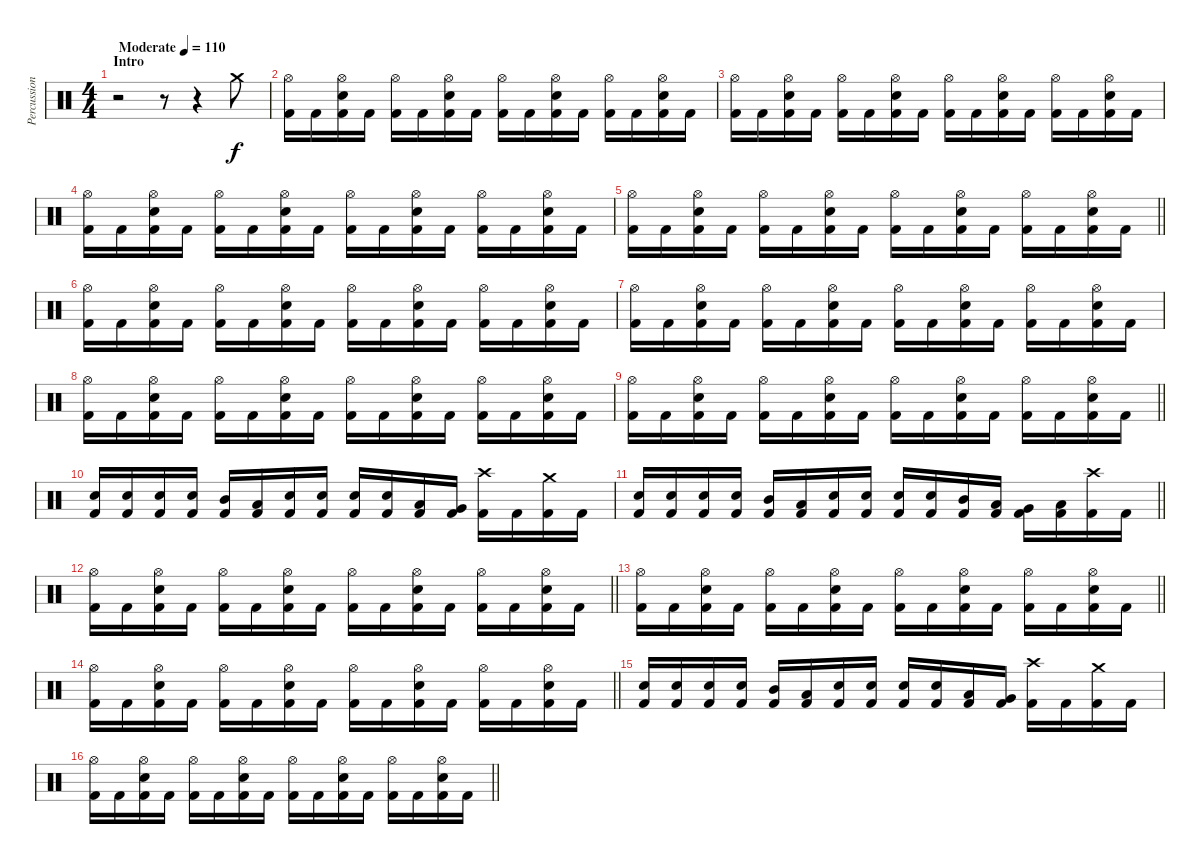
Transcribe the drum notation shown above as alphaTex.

\track ("Percussion" "Percussion") {instrument percussion}
\staff {score}
\articulation defaults
\ts (4 4)
\section ("" "Intro")
\tempo (110 "Moderate")
\clef neutral
\ks c
r.2{dy f} r.8 r.4 "Crash medium (hit)".8 |
("Hi-Hat (open)" "Kick (hit) 2").16 "Kick (hit) 2".16 ("Hi-Hat (open)" "Electric Snare (hit)" "Kick (hit) 2").16 "Kick (hit) 2".16 ("Hi-Hat (open)" "Kick (hit) 2").16 "Kick (hit) 2".16 ("Hi-Hat (open)" "Electric Snare (hit)" "Kick (hit) 2").16 "Kick (hit) 2".16 ("Hi-Hat (open)" "Kick (hit) 2").16 "Kick (hit) 2".16 ("Hi-Hat (open)" "Electric Snare (hit)" "Kick (hit) 2").16 "Kick (hit) 2".16 ("Hi-Hat (open)" "Kick (hit) 2").16 "Kick (hit) 2".16 ("Hi-Hat (open)" "Electric Snare (hit)" "Kick (hit) 2").16 "Kick (hit) 2".16 |
("Hi-Hat (open)" "Kick (hit) 2").16 "Kick (hit) 2".16 ("Hi-Hat (open)" "Electric Snare (hit)" "Kick (hit) 2").16 "Kick (hit) 2".16 ("Hi-Hat (open)" "Kick (hit) 2").16 "Kick (hit) 2".16 ("Hi-Hat (open)" "Electric Snare (hit)" "Kick (hit) 2").16 "Kick (hit) 2".16 ("Hi-Hat (open)" "Kick (hit) 2").16 "Kick (hit) 2".16 ("Hi-Hat (open)" "Electric Snare (hit)" "Kick (hit) 2").16 "Kick (hit) 2".16 ("Hi-Hat (open)" "Kick (hit) 2").16 "Kick (hit) 2".16 ("Hi-Hat (open)" "Electric Snare (hit)" "Kick (hit) 2").16 "Kick (hit) 2".16 |
("Hi-Hat (open)" "Kick (hit) 2").16 "Kick (hit) 2".16 ("Hi-Hat (open)" "Electric Snare (hit)" "Kick (hit) 2").16 "Kick (hit) 2".16 ("Hi-Hat (open)" "Kick (hit) 2").16 "Kick (hit) 2".16 ("Hi-Hat (open)" "Electric Snare (hit)" "Kick (hit) 2").16 "Kick (hit) 2".16 ("Hi-Hat (open)" "Kick (hit) 2").16 "Kick (hit) 2".16 ("Hi-Hat (open)" "Electric Snare (hit)" "Kick (hit) 2").16 "Kick (hit) 2".16 ("Hi-Hat (open)" "Kick (hit) 2").16 "Kick (hit) 2".16 ("Hi-Hat (open)" "Electric Snare (hit)" "Kick (hit) 2").16 "Kick (hit) 2".16 |
\barLineRight lightlight
("Hi-Hat (open)" "Kick (hit) 2").16 "Kick (hit) 2".16 ("Hi-Hat (open)" "Electric Snare (hit)" "Kick (hit) 2").16 "Kick (hit) 2".16 ("Hi-Hat (open)" "Kick (hit) 2").16 "Kick (hit) 2".16 ("Hi-Hat (open)" "Electric Snare (hit)" "Kick (hit) 2").16 "Kick (hit) 2".16 ("Hi-Hat (open)" "Kick (hit) 2").16 "Kick (hit) 2".16 ("Hi-Hat (open)" "Electric Snare (hit)" "Kick (hit) 2").16 "Kick (hit) 2".16 ("Hi-Hat (open)" "Kick (hit) 2").16 "Kick (hit) 2".16 ("Hi-Hat (open)" "Electric Snare (hit)" "Kick (hit) 2").16 "Kick (hit) 2".16 |
\section ("" "")
("Hi-Hat (open)" "Kick (hit) 2").16 "Kick (hit) 2".16 ("Hi-Hat (open)" "Electric Snare (hit)" "Kick (hit) 2").16 "Kick (hit) 2".16 ("Hi-Hat (open)" "Kick (hit) 2").16 "Kick (hit) 2".16 ("Hi-Hat (open)" "Electric Snare (hit)" "Kick (hit) 2").16 "Kick (hit) 2".16 ("Hi-Hat (open)" "Kick (hit) 2").16 "Kick (hit) 2".16 ("Hi-Hat (open)" "Electric Snare (hit)" "Kick (hit) 2").16 "Kick (hit) 2".16 ("Hi-Hat (open)" "Kick (hit) 2").16 "Kick (hit) 2".16 ("Hi-Hat (open)" "Electric Snare (hit)" "Kick (hit) 2").16 "Kick (hit) 2".16 |
("Hi-Hat (open)" "Kick (hit) 2").16 "Kick (hit) 2".16 ("Hi-Hat (open)" "Electric Snare (hit)" "Kick (hit) 2").16 "Kick (hit) 2".16 ("Hi-Hat (open)" "Kick (hit) 2").16 "Kick (hit) 2".16 ("Hi-Hat (open)" "Electric Snare (hit)" "Kick (hit) 2").16 "Kick (hit) 2".16 ("Hi-Hat (open)" "Kick (hit) 2").16 "Kick (hit) 2".16 ("Hi-Hat (open)" "Electric Snare (hit)" "Kick (hit) 2").16 "Kick (hit) 2".16 ("Hi-Hat (open)" "Kick (hit) 2").16 "Kick (hit) 2".16 ("Hi-Hat (open)" "Electric Snare (hit)" "Kick (hit) 2").16 "Kick (hit) 2".16 |
("Hi-Hat (open)" "Kick (hit) 2").16 "Kick (hit) 2".16 ("Hi-Hat (open)" "Electric Snare (hit)" "Kick (hit) 2").16 "Kick (hit) 2".16 ("Hi-Hat (open)" "Kick (hit) 2").16 "Kick (hit) 2".16 ("Hi-Hat (open)" "Electric Snare (hit)" "Kick (hit) 2").16 "Kick (hit) 2".16 ("Hi-Hat (open)" "Kick (hit) 2").16 "Kick (hit) 2".16 ("Hi-Hat (open)" "Electric Snare (hit)" "Kick (hit) 2").16 "Kick (hit) 2".16 ("Hi-Hat (open)" "Kick (hit) 2").16 "Kick (hit) 2".16 ("Hi-Hat (open)" "Electric Snare (hit)" "Kick (hit) 2").16 "Kick (hit) 2".16 |
\barLineRight lightlight
("Hi-Hat (open)" "Kick (hit) 2").16 "Kick (hit) 2".16 ("Hi-Hat (open)" "Electric Snare (hit)" "Kick (hit) 2").16 "Kick (hit) 2".16 ("Hi-Hat (open)" "Kick (hit) 2").16 "Kick (hit) 2".16 ("Hi-Hat (open)" "Electric Snare (hit)" "Kick (hit) 2").16 "Kick (hit) 2".16 ("Hi-Hat (open)" "Kick (hit) 2").16 "Kick (hit) 2".16 ("Hi-Hat (open)" "Electric Snare (hit)" "Kick (hit) 2").16 "Kick (hit) 2".16 ("Hi-Hat (open)" "Kick (hit) 2").16 "Kick (hit) 2".16 ("Hi-Hat (open)" "Electric Snare (hit)" "Kick (hit) 2").16 "Kick (hit) 2".16 |
\section ("" "")
("Electric Snare (hit)" "Kick (hit) 2").16 ("Electric Snare (hit)" "Kick (hit) 2").16 ("Electric Snare (hit)" "Kick (hit) 2").16 ("Electric Snare (hit)" "Kick (hit) 2").16 ("Mid Tom (hit)" "Kick (hit) 2").16 ("Low Tom (hit)" "Kick (hit) 2").16 ("Electric Snare (hit)" "Kick (hit) 2").16 ("Electric Snare (hit)" "Kick (hit) 2").16 ("Electric Snare (hit)" "Kick (hit) 2").16 ("Electric Snare (hit)" "Kick (hit) 2").16 ("Low Tom (hit)" "Kick (hit) 2").16 ("Very Low Tom (hit)" "Kick (hit) 2").16 ("Crash high (hit)" "Kick (hit) 2").16 "Kick (hit) 2".16 ("Crash medium (hit)" "Kick (hit) 2").16 "Kick (hit) 2".16 |
\barLineRight lightlight
("Electric Snare (hit)" "Kick (hit) 2").16 ("Electric Snare (hit)" "Kick (hit) 2").16 ("Electric Snare (hit)" "Kick (hit) 2").16 ("Electric Snare (hit)" "Kick (hit) 2").16 ("Mid Tom (hit)" "Kick (hit) 2").16 ("Low Tom (hit)" "Kick (hit) 2").16 ("Electric Snare (hit)" "Kick (hit) 2").16 ("Electric Snare (hit)" "Kick (hit) 2").16 ("Electric Snare (hit)" "Kick (hit) 2").16 ("Electric Snare (hit)" "Kick (hit) 2").16 ("Mid Tom (hit)" "Kick (hit) 2").16 ("Low Tom (hit)" "Kick (hit) 2").16 ("Very Low Tom (hit)" "Kick (hit) 2").16 ("Low Floor Tom (hit)" "Kick (hit) 2").16 ("Crash high (hit)" "Kick (hit) 2").16 "Kick (hit) 2".16 |
\section ("" "")
\barLineRight lightlight
("Hi-Hat (open)" "Kick (hit) 2").16 "Kick (hit) 2".16 ("Hi-Hat (open)" "Electric Snare (hit)" "Kick (hit) 2").16 "Kick (hit) 2".16 ("Hi-Hat (open)" "Kick (hit) 2").16 "Kick (hit) 2".16 ("Hi-Hat (open)" "Electric Snare (hit)" "Kick (hit) 2").16 "Kick (hit) 2".16 ("Hi-Hat (open)" "Kick (hit) 2").16 "Kick (hit) 2".16 ("Hi-Hat (open)" "Electric Snare (hit)" "Kick (hit) 2").16 "Kick (hit) 2".16 ("Hi-Hat (open)" "Kick (hit) 2").16 "Kick (hit) 2".16 ("Hi-Hat (open)" "Electric Snare (hit)" "Kick (hit) 2").16 "Kick (hit) 2".16 |
\barLineRight lightlight
("Hi-Hat (open)" "Kick (hit) 2").16 "Kick (hit) 2".16 ("Hi-Hat (open)" "Electric Snare (hit)" "Kick (hit) 2").16 "Kick (hit) 2".16 ("Hi-Hat (open)" "Kick (hit) 2").16 "Kick (hit) 2".16 ("Hi-Hat (open)" "Electric Snare (hit)" "Kick (hit) 2").16 "Kick (hit) 2".16 ("Hi-Hat (open)" "Kick (hit) 2").16 "Kick (hit) 2".16 ("Hi-Hat (open)" "Electric Snare (hit)" "Kick (hit) 2").16 "Kick (hit) 2".16 ("Hi-Hat (open)" "Kick (hit) 2").16 "Kick (hit) 2".16 ("Hi-Hat (open)" "Electric Snare (hit)" "Kick (hit) 2").16 "Kick (hit) 2".16 |
\barLineRight lightlight
("Hi-Hat (open)" "Kick (hit) 2").16 "Kick (hit) 2".16 ("Hi-Hat (open)" "Electric Snare (hit)" "Kick (hit) 2").16 "Kick (hit) 2".16 ("Hi-Hat (open)" "Kick (hit) 2").16 "Kick (hit) 2".16 ("Hi-Hat (open)" "Electric Snare (hit)" "Kick (hit) 2").16 "Kick (hit) 2".16 ("Hi-Hat (open)" "Kick (hit) 2").16 "Kick (hit) 2".16 ("Hi-Hat (open)" "Electric Snare (hit)" "Kick (hit) 2").16 "Kick (hit) 2".16 ("Hi-Hat (open)" "Kick (hit) 2").16 "Kick (hit) 2".16 ("Hi-Hat (open)" "Electric Snare (hit)" "Kick (hit) 2").16 "Kick (hit) 2".16 |
("Electric Snare (hit)" "Kick (hit) 2").16 ("Electric Snare (hit)" "Kick (hit) 2").16 ("Electric Snare (hit)" "Kick (hit) 2").16 ("Electric Snare (hit)" "Kick (hit) 2").16 ("Mid Tom (hit)" "Kick (hit) 2").16 ("Low Tom (hit)" "Kick (hit) 2").16 ("Electric Snare (hit)" "Kick (hit) 2").16 ("Electric Snare (hit)" "Kick (hit) 2").16 ("Electric Snare (hit)" "Kick (hit) 2").16 ("Electric Snare (hit)" "Kick (hit) 2").16 ("Low Tom (hit)" "Kick (hit) 2").16 ("Very Low Tom (hit)" "Kick (hit) 2").16 ("Crash high (hit)" "Kick (hit) 2").16 "Kick (hit) 2".16 ("Crash medium (hit)" "Kick (hit) 2").16 "Kick (hit) 2".16 |
\barLineRight lightlight
("Hi-Hat (open)" "Kick (hit) 2").16 "Kick (hit) 2".16 ("Hi-Hat (open)" "Electric Snare (hit)" "Kick (hit) 2").16 "Kick (hit) 2".16 ("Hi-Hat (open)" "Kick (hit) 2").16 "Kick (hit) 2".16 ("Hi-Hat (open)" "Electric Snare (hit)" "Kick (hit) 2").16 "Kick (hit) 2".16 ("Hi-Hat (open)" "Kick (hit) 2").16 "Kick (hit) 2".16 ("Hi-Hat (open)" "Electric Snare (hit)" "Kick (hit) 2").16 "Kick (hit) 2".16 ("Hi-Hat (open)" "Kick (hit) 2").16 "Kick (hit) 2".16 ("Hi-Hat (open)" "Electric Snare (hit)" "Kick (hit) 2").16 "Kick (hit) 2".16
